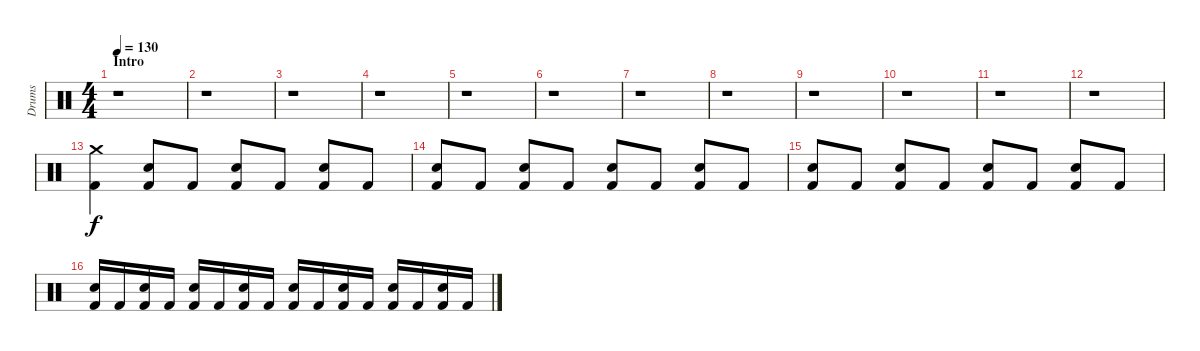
\track ("Drums" "Drums") {instrument percussion}
\staff
\articulation defaults
\ts (4 4)
\section ("" "Intro")
\tempo 130
\clef neutral
\ks c
r.1{dy f} |
r.1 |
r.1 |
r.1 |
r.1 |
r.1 |
r.1 |
r.1 |
r.1 |
r.1 |
r.1 |
r.1 |
("Crash medium (hit)" "Kick (hit) 2").4 ("Snare (hit) 2" "Kick (hit) 2").8 "Kick (hit) 2".8 ("Snare (hit) 2" "Kick (hit) 2").8 "Kick (hit) 2".8 ("Snare (hit) 2" "Kick (hit) 2").8 "Kick (hit) 2".8 |
("Snare (hit) 2" "Kick (hit) 2").8 "Kick (hit) 2".8 ("Snare (hit) 2" "Kick (hit) 2").8 "Kick (hit) 2".8 ("Snare (hit) 2" "Kick (hit) 2").8 "Kick (hit) 2".8 ("Snare (hit) 2" "Kick (hit) 2").8 "Kick (hit) 2".8 |
("Snare (hit) 2" "Kick (hit) 2").8 "Kick (hit) 2".8 ("Snare (hit) 2" "Kick (hit) 2").8 "Kick (hit) 2".8 ("Snare (hit) 2" "Kick (hit) 2").8 "Kick (hit) 2".8 ("Snare (hit) 2" "Kick (hit) 2").8 "Kick (hit) 2".8 |
("Snare (hit) 2" "Kick (hit) 2").16 "Kick (hit) 2".16 ("Snare (hit) 2" "Kick (hit) 2").16 "Kick (hit) 2".16 ("Snare (hit) 2" "Kick (hit) 2").16 "Kick (hit) 2".16 ("Snare (hit) 2" "Kick (hit) 2").16 "Kick (hit) 2".16 ("Snare (hit) 2" "Kick (hit) 2").16 "Kick (hit) 2".16 ("Snare (hit) 2" "Kick (hit) 2").16 "Kick (hit) 2".16 ("Snare (hit) 2" "Kick (hit) 2").16 "Kick (hit) 2".16 ("Snare (hit) 2" "Kick (hit) 2").16 "Kick (hit) 2".16
